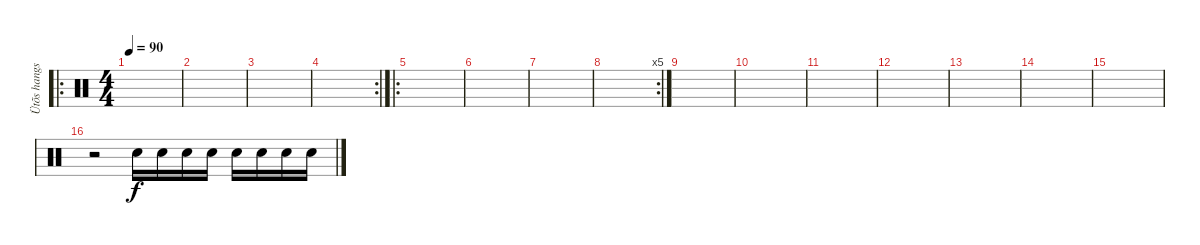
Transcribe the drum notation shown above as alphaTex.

\track ("Ütõs hangszer" "Ütõs hangs") {instrument percussion}
\staff {score}
\articulation defaults
\ro
\ts (4 4)
\tempo 90
\clef neutral
\ks c
|
|
|
\rc 2
|
\ro
|
|
|
\rc 5
|
|
|
|
|
|
|
|
r.2 "Electric Snare (hit)".16 "Electric Snare (hit)".16 "Electric Snare (hit)".16 "Electric Snare (hit)".16 "Electric Snare (hit)".16 "Electric Snare (hit)".16 "Electric Snare (hit)".16 "Electric Snare (hit)".16
